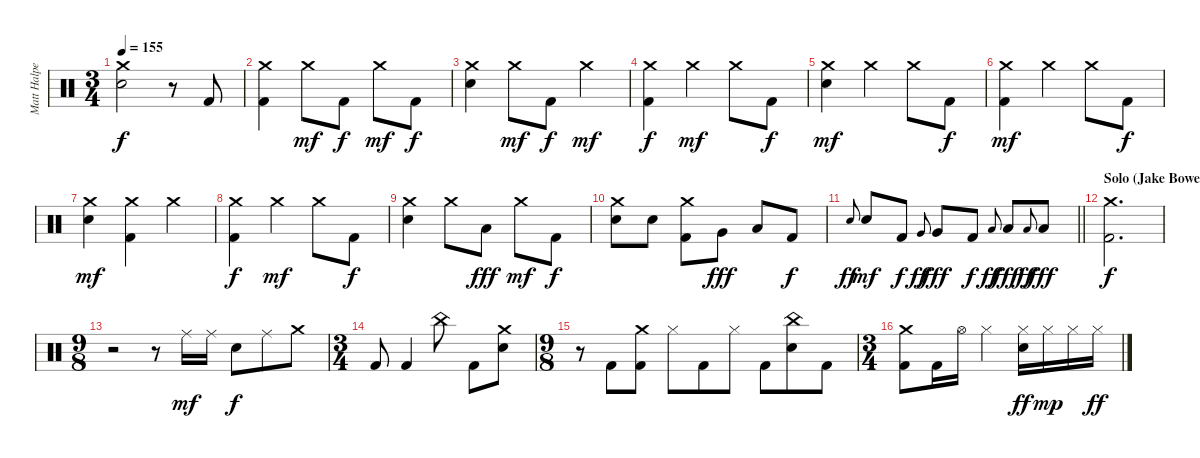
\track ("Matt Halpern - Drums" "Matt Halpe") {instrument percussion}
\staff {score}
\articulation defaults
\ts (3 4)
\tempo 155
\clef neutral
\ks c
("Crash medium (hit)" "Electric Snare (hit)").2{dy f} r.8 "Kick (hit) 2".8 |
("Crash medium (hit)" "Kick (hit) 2").4 "Crash medium (hit)".8{dy mf} "Kick (hit) 2".8{dy f} "Crash medium (hit)".8{dy mf} "Kick (hit) 2".8{dy f} |
("Crash medium (hit)" "Electric Snare (hit)").4 "Crash medium (hit)".8{dy mf} "Kick (hit) 2".8{dy f} "Crash medium (hit)".4{dy mf} |
("Crash medium (hit)" "Kick (hit) 2").4{dy f} "Crash medium (hit)".4{dy mf} "Crash medium (hit)".8 "Kick (hit) 2".8{dy f} |
("Crash medium (hit)" "Electric Snare (hit)").4{dy mf} "Crash medium (hit)".4 "Crash medium (hit)".8 "Kick (hit) 2".8{dy f} |
("Crash medium (hit)" "Kick (hit) 2").4{dy mf} "Crash medium (hit)".4 "Crash medium (hit)".8 "Kick (hit) 2".8{dy f} |
("Crash medium (hit)" "Electric Snare (hit)").4{dy mf} ("Crash medium (hit)" "Kick (hit) 2").4 "Crash medium (hit)".4 |
("Crash medium (hit)" "Kick (hit) 2").4{dy f} "Crash medium (hit)".4{dy mf} "Crash medium (hit)".8 "Kick (hit) 2".8{dy f} |
("Crash medium (hit)" "Electric Snare (hit)").4 "Crash medium (hit)".8 "Low Tom (hit)".8{dy fff} "Crash medium (hit)".8{dy mf} "Kick (hit) 2".8{dy f} |
("Crash medium (hit)" "Electric Snare (hit)").8 "Electric Snare (hit)".8 ("Crash medium (hit)" "Kick (hit) 2").8 "Very Low Tom (hit)".8{dy fff} "Low Floor Tom (hit)".8 "Kick (hit) 2".8{dy f} |
\barLineRight lightlight "Electric Snare (hit)".8{gr onbeat dy ff} "Electric Snare (hit)".8{dy mf} "Kick (hit) 2".8{dy f} "Very Low Tom (hit)".8{gr onbeat dy ff} "Very Low Tom (hit)".8{dy fff} "Kick (hit) 2".8{dy f} "Low Floor Tom (hit)".8{gr onbeat dy ff} "Low Floor Tom (hit)".8{dy fff} "Low Floor Tom (hit)".8{gr onbeat dy ff} "Low Floor Tom (hit)".8{dy fff}
|
\section ("" "Solo (Jake Bowen)")
("Crash medium (hit)" "Kick (hit) 2").2{d dy f} |
\ts (9 8)
r.2 r.8 "Ride (middle)".16{dy mf} "Ride (middle)".16 "Electric Snare (hit)".8{dy f} "Ride (middle)".8 "Crash medium (hit)".8 |
\ts (3 4)
"Kick (hit) 2".8 "Kick (hit) 2".4 "China (hit)".8 "Kick (hit) 2".8 ("Crash medium (hit)" "Electric Snare (hit)").8 |
\ts (9 8)
r.8 "Kick (hit) 2".8 ("Crash medium (hit)" "Kick (hit) 2").8 "Hi-Hat (closed)".8 "Kick (hit) 2".8 "Hi-Hat (closed)".8 "Kick (hit) 2".8 ("China (hit)" "Electric Snare (hit)").8 "Kick (hit) 2".8 |
\ts (3 4)
("Crash medium (hit)" "Kick (hit) 2").8 "Kick (hit) 2".16 "Hi-Hat (open)".16 "Hi-Hat (closed)".4 ("Hi-Hat (closed)" "Electric Snare (hit)").16{dy ff} "Hi-Hat (closed)".16{dy mp} "Hi-Hat (closed)".16 "Hi-Hat (closed)".16{dy ff}
